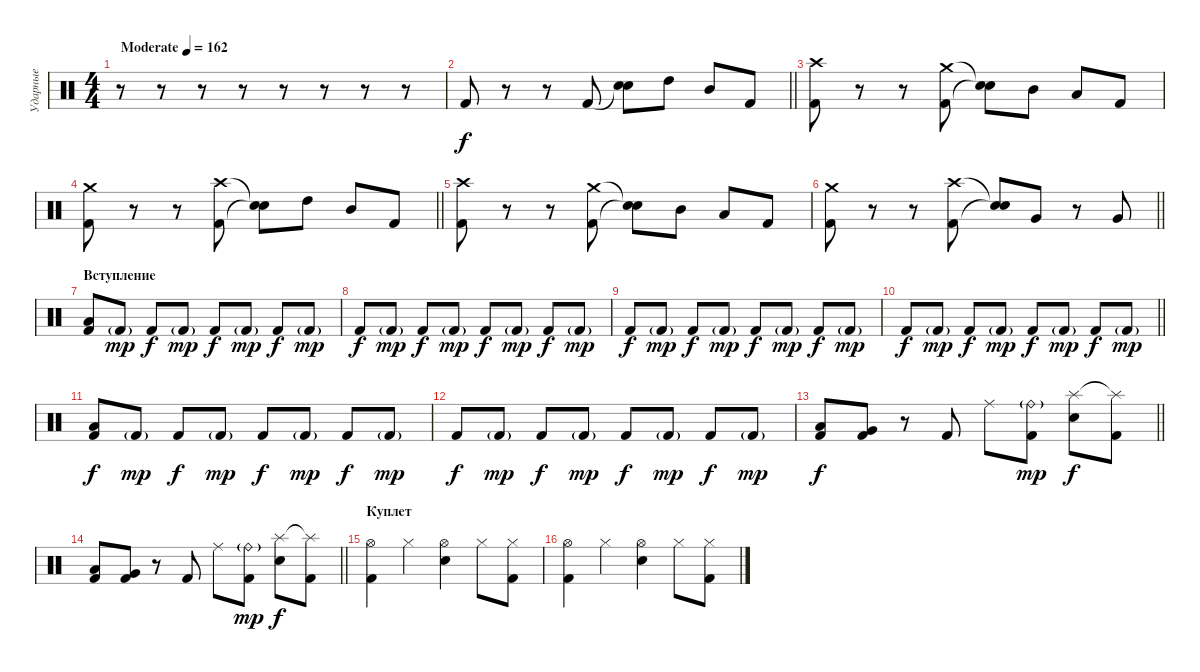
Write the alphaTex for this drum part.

\track ("Ударные" "Ударные") {instrument percussion}
\staff {score}
\articulation defaults
\ts (4 4)
\tempo (162 "Moderate")
\clef neutral
\ks c
r.8{dy f} r.8 r.8 r.8 r.8 r.8 r.8 r.8 |
\barLineRight lightlight "Kick (hit) 2".8
r.8 r.8 "Kick (hit) 2".8 ("Snare (hit)"{t} "Snare (hit)").8 "High Tom (hit)".8 "Mid Tom (hit)".8 "Kick (hit) 2".8 |
("Crash high (hit)" "Kick (hit) 2").8 r.8 r.8 ("Crash medium (hit)" "Kick (hit) 2").8 ("Snare (hit)"{t} "Snare (hit)"{t}).8 "Mid Tom (hit)".8 "Low Tom (hit)".8 "Kick (hit) 2".8 |
\barLineRight lightlight
("Crash medium (hit)" "Kick (hit) 2").8 r.8 r.8 ("Crash high (hit)" "Kick (hit) 2").8 ("Snare (hit)"{t} "Snare (hit)"{t}).8 "High Tom (hit)".8 "Mid Tom (hit)".8 "Kick (hit) 2".8 |
("Crash high (hit)" "Kick (hit) 2").8 r.8 r.8 ("Crash medium (hit)" "Kick (hit) 2").8 ("Snare (hit)"{t} "Snare (hit)"{t}).8 "Mid Tom (hit)".8 "Low Tom (hit)".8 "Kick (hit) 2".8 |
\barLineRight lightlight
("Crash medium (hit)" "Kick (hit) 2").8 r.8 r.8 ("Crash high (hit)" "Kick (hit) 2").8 ("Snare (hit)"{t} "Snare (hit)"{t}).8 "Very Low Tom (hit)".8 r.8 "Very Low Tom (hit)".8 |
\section ("" "Вступление")
("Low Floor Tom (hit)" "Kick (hit) 2").8 "Kick (hit) 2"{g}.8{dy mp} "Kick (hit) 2".8{dy f} "Kick (hit) 2"{g}.8{dy mp} "Kick (hit) 2".8{dy f} "Kick (hit) 2"{g}.8{dy mp} "Kick (hit) 2".8{dy f} "Kick (hit) 2"{g}.8{dy mp} |
"Kick (hit) 2".8{dy f} "Kick (hit) 2"{g}.8{dy mp} "Kick (hit) 2".8{dy f} "Kick (hit) 2"{g}.8{dy mp} "Kick (hit) 2".8{dy f} "Kick (hit) 2"{g}.8{dy mp} "Kick (hit) 2".8{dy f} "Kick (hit) 2"{g}.8{dy mp} |
"Kick (hit) 2".8{dy f} "Kick (hit) 2"{g}.8{dy mp} "Kick (hit) 2".8{dy f} "Kick (hit) 2"{g}.8{dy mp} "Kick (hit) 2".8{dy f} "Kick (hit) 2"{g}.8{dy mp} "Kick (hit) 2".8{dy f} "Kick (hit) 2"{g}.8{dy mp} |
\barLineRight lightlight "Kick (hit) 2".8{dy f} "Kick (hit) 2"{g}.8{dy mp} "Kick (hit) 2".8{dy f} "Kick (hit) 2"{g}.8{dy mp} "Kick (hit) 2".8{dy f} "Kick (hit) 2"{g}.8{dy mp} "Kick (hit) 2".8{dy f} "Kick (hit) 2"{g}.8{dy mp}
|
("Low Floor Tom (hit)" "Kick (hit) 2").8{dy f} "Kick (hit) 2"{g}.8{dy mp} "Kick (hit) 2".8{dy f} "Kick (hit) 2"{g}.8{dy mp} "Kick (hit) 2".8{dy f} "Kick (hit) 2"{g}.8{dy mp} "Kick (hit) 2".8{dy f} "Kick (hit) 2"{g}.8{dy mp} |
"Kick (hit) 2".8{dy f} "Kick (hit) 2"{g}.8{dy mp} "Kick (hit) 2".8{dy f} "Kick (hit) 2"{g}.8{dy mp} "Kick (hit) 2".8{dy f} "Kick (hit) 2"{g}.8{dy mp} "Kick (hit) 2".8{dy f} "Kick (hit) 2"{g}.8{dy mp} |
\barLineRight lightlight
("Low Floor Tom (hit)" "Kick (hit) 2").8{dy f} ("Very Low Tom (hit)" "Kick (hit) 2").8 r.8 "Kick (hit) 2".8 "Ride (middle)".8 ("Ride (bell)"{g} "Kick (hit) 2").8{dy mp} ("Splash (hit)" "Snare (hit) 2").8{dy f} ("Splash (hit)"{t} "Kick (hit) 2").8 |
\barLineRight lightlight
("Low Floor Tom (hit)" "Kick (hit) 2").8 ("Very Low Tom (hit)" "Kick (hit) 2").8 r.8 "Kick (hit) 2".8 "Ride (middle)".8 ("Ride (bell)"{g} "Kick (hit) 2").8{dy mp} ("Splash (hit)" "Snare (hit) 2").8{dy f} ("Splash (hit)"{t} "Kick (hit) 2").8 |
\section ("" "Куплет")
("Hi-Hat (open)" "Kick (hit) 2").4 "Hi-Hat (closed)".4 ("Hi-Hat (open)" "Snare (hit) 2").4 "Hi-Hat (closed)".8 ("Hi-Hat (closed)" "Kick (hit) 2").8 |
("Hi-Hat (open)" "Kick (hit) 2").4 "Hi-Hat (closed)".4 ("Hi-Hat (open)" "Snare (hit) 2").4 "Hi-Hat (closed)".8 ("Hi-Hat (closed)" "Kick (hit) 2").8
